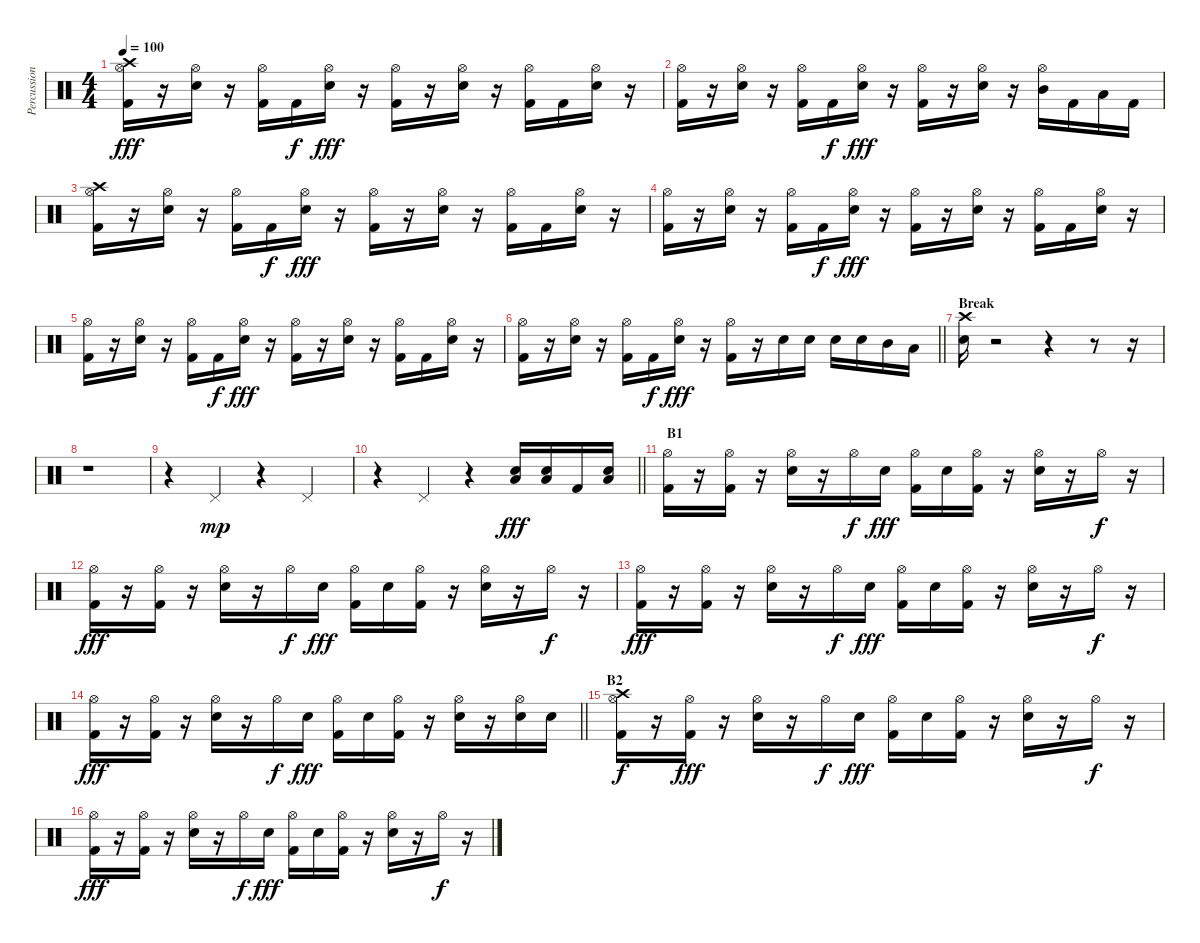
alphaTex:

\track ("Percussion" "Percussion") {instrument percussion}
\staff
\articulation defaults
\ts (4 4)
\tempo 100
\clef neutral
\ks c
("Kick (hit) 2" "Hi-Hat (open)" "Crash high (hit)").16{dy fff} r.16 ("Electric Snare (hit)" "Hi-Hat (open)").16 r.16 ("Kick (hit) 2" "Hi-Hat (open)").16 "Kick (hit) 2".16{dy f} ("Electric Snare (hit)" "Hi-Hat (open)").16{dy fff} r.16 ("Kick (hit) 2" "Hi-Hat (open)").16 r.16 ("Electric Snare (hit)" "Hi-Hat (open)").16 r.16 ("Kick (hit) 2" "Hi-Hat (open)").16 "Kick (hit) 2".16 ("Electric Snare (hit)" "Hi-Hat (open)").16 r.16 |
("Kick (hit) 2" "Hi-Hat (open)").16 r.16 ("Electric Snare (hit)" "Hi-Hat (open)").16 r.16 ("Kick (hit) 2" "Hi-Hat (open)").16 "Kick (hit) 2".16{dy f} ("Electric Snare (hit)" "Hi-Hat (open)").16{dy fff} r.16 ("Kick (hit) 2" "Hi-Hat (open)").16 r.16 ("Electric Snare (hit)" "Hi-Hat (open)").16 r.16 ("Mid Tom (hit)" "Hi-Hat (open)").16 "Kick (hit) 2".16 "Low Tom (hit)".16 "Kick (hit) 2".16 |
("Kick (hit) 2" "Hi-Hat (open)" "Crash high (hit)").16 r.16 ("Electric Snare (hit)" "Hi-Hat (open)").16 r.16 ("Kick (hit) 2" "Hi-Hat (open)").16 "Kick (hit) 2".16{dy f} ("Electric Snare (hit)" "Hi-Hat (open)").16{dy fff} r.16 ("Kick (hit) 2" "Hi-Hat (open)").16 r.16 ("Electric Snare (hit)" "Hi-Hat (open)").16 r.16 ("Kick (hit) 2" "Hi-Hat (open)").16 "Kick (hit) 2".16 ("Electric Snare (hit)" "Hi-Hat (open)").16 r.16 |
("Kick (hit) 2" "Hi-Hat (open)").16 r.16 ("Electric Snare (hit)" "Hi-Hat (open)").16 r.16 ("Kick (hit) 2" "Hi-Hat (open)").16 "Kick (hit) 2".16{dy f} ("Electric Snare (hit)" "Hi-Hat (open)").16{dy fff} r.16 ("Kick (hit) 2" "Hi-Hat (open)").16 r.16 ("Electric Snare (hit)" "Hi-Hat (open)").16 r.16 ("Kick (hit) 2" "Hi-Hat (open)").16 "Kick (hit) 2".16 ("Electric Snare (hit)" "Hi-Hat (open)").16 r.16 |
("Kick (hit) 2" "Hi-Hat (open)").16 r.16 ("Electric Snare (hit)" "Hi-Hat (open)").16 r.16 ("Kick (hit) 2" "Hi-Hat (open)").16 "Kick (hit) 2".16{dy f} ("Electric Snare (hit)" "Hi-Hat (open)").16{dy fff} r.16 ("Kick (hit) 2" "Hi-Hat (open)").16 r.16 ("Electric Snare (hit)" "Hi-Hat (open)").16 r.16 ("Kick (hit) 2" "Hi-Hat (open)").16 "Kick (hit) 2".16 ("Electric Snare (hit)" "Hi-Hat (open)").16 r.16 |
\barLineRight lightlight
("Kick (hit) 2" "Hi-Hat (open)").16 r.16 ("Electric Snare (hit)" "Hi-Hat (open)").16 r.16 ("Kick (hit) 2" "Hi-Hat (open)").16 "Kick (hit) 2".16{dy f} ("Electric Snare (hit)" "Hi-Hat (open)").16{dy fff} r.16 ("Kick (hit) 2" "Hi-Hat (open)").16 r.16 "Electric Snare (hit)".16 "Electric Snare (hit)".16 "Electric Snare (hit)".16 "Electric Snare (hit)".16 "Mid Tom (hit)".16 "Low Tom (hit)".16 |
\section ("" "Break")
("Electric Snare (hit)" "Crash high (hit)").16 r.2 r.4 r.8 r.16 |
r.1 |
r.4 "Pedal Hi-Hat (hit)".4{dy mp} r.4 "Pedal Hi-Hat (hit)".4 |
\barLineRight lightlight
r.4 "Pedal Hi-Hat (hit)".4 r.4 ("Electric Snare (hit)" "Low Tom (hit)").16{dy fff} ("Electric Snare (hit)" "Low Tom (hit)").16 "Kick (hit) 2".16 ("Electric Snare (hit)" "Low Tom (hit)").16 |
\section ("" " B1")
("Kick (hit) 2" "Hi-Hat (open)").16 r.16 ("Kick (hit) 2" "Hi-Hat (open)").16 r.16 ("Electric Snare (hit)" "Hi-Hat (open)").16 r.16 "Hi-Hat (open)".16{dy f} "Electric Snare (hit)".16{dy fff} ("Kick (hit) 2" "Hi-Hat (open)").16 "Electric Snare (hit)".16 ("Kick (hit) 2" "Hi-Hat (open)").16 r.16 ("Electric Snare (hit)" "Hi-Hat (open)").16 r.16 "Hi-Hat (open)".16{dy f} r.16 |
("Kick (hit) 2" "Hi-Hat (open)").16{dy fff} r.16 ("Kick (hit) 2" "Hi-Hat (open)").16 r.16 ("Electric Snare (hit)" "Hi-Hat (open)").16 r.16 "Hi-Hat (open)".16{dy f} "Electric Snare (hit)".16{dy fff} ("Kick (hit) 2" "Hi-Hat (open)").16 "Electric Snare (hit)".16 ("Kick (hit) 2" "Hi-Hat (open)").16 r.16 ("Electric Snare (hit)" "Hi-Hat (open)").16 r.16 "Hi-Hat (open)".16{dy f} r.16 |
("Kick (hit) 2" "Hi-Hat (open)").16{dy fff} r.16 ("Kick (hit) 2" "Hi-Hat (open)").16 r.16 ("Electric Snare (hit)" "Hi-Hat (open)").16 r.16 "Hi-Hat (open)".16{dy f} "Electric Snare (hit)".16{dy fff} ("Kick (hit) 2" "Hi-Hat (open)").16 "Electric Snare (hit)".16 ("Kick (hit) 2" "Hi-Hat (open)").16 r.16 ("Electric Snare (hit)" "Hi-Hat (open)").16 r.16 "Hi-Hat (open)".16{dy f} r.16 |
\barLineRight lightlight
("Kick (hit) 2" "Hi-Hat (open)").16{dy fff} r.16 ("Kick (hit) 2" "Hi-Hat (open)").16 r.16 ("Electric Snare (hit)" "Hi-Hat (open)").16 r.16 "Hi-Hat (open)".16{dy f} "Electric Snare (hit)".16{dy fff} ("Kick (hit) 2" "Hi-Hat (open)").16 "Electric Snare (hit)".16 ("Kick (hit) 2" "Hi-Hat (open)").16 r.16 ("Electric Snare (hit)" "Hi-Hat (open)").16 r.16 ("Electric Snare (hit)" "Hi-Hat (open)").16 "Electric Snare (hit)".16 |
\section ("" "B2")
("Kick (hit) 2" "Crash high (hit)" "Hi-Hat (open)").16{dy f} r.16 ("Kick (hit) 2" "Hi-Hat (open)").16{dy fff} r.16 ("Electric Snare (hit)" "Hi-Hat (open)").16 r.16 "Hi-Hat (open)".16{dy f} "Electric Snare (hit)".16{dy fff} ("Kick (hit) 2" "Hi-Hat (open)").16 "Electric Snare (hit)".16 ("Kick (hit) 2" "Hi-Hat (open)").16 r.16 ("Electric Snare (hit)" "Hi-Hat (open)").16 r.16 "Hi-Hat (open)".16{dy f} r.16 |
("Kick (hit) 2" "Hi-Hat (open)").16{dy fff} r.16 ("Kick (hit) 2" "Hi-Hat (open)").16 r.16 ("Electric Snare (hit)" "Hi-Hat (open)").16 r.16 "Hi-Hat (open)".16{dy f} "Electric Snare (hit)".16{dy fff} ("Kick (hit) 2" "Hi-Hat (open)").16 "Electric Snare (hit)".16 ("Kick (hit) 2" "Hi-Hat (open)").16 r.16 ("Electric Snare (hit)" "Hi-Hat (open)").16 r.16 "Hi-Hat (open)".16{dy f} r.16
